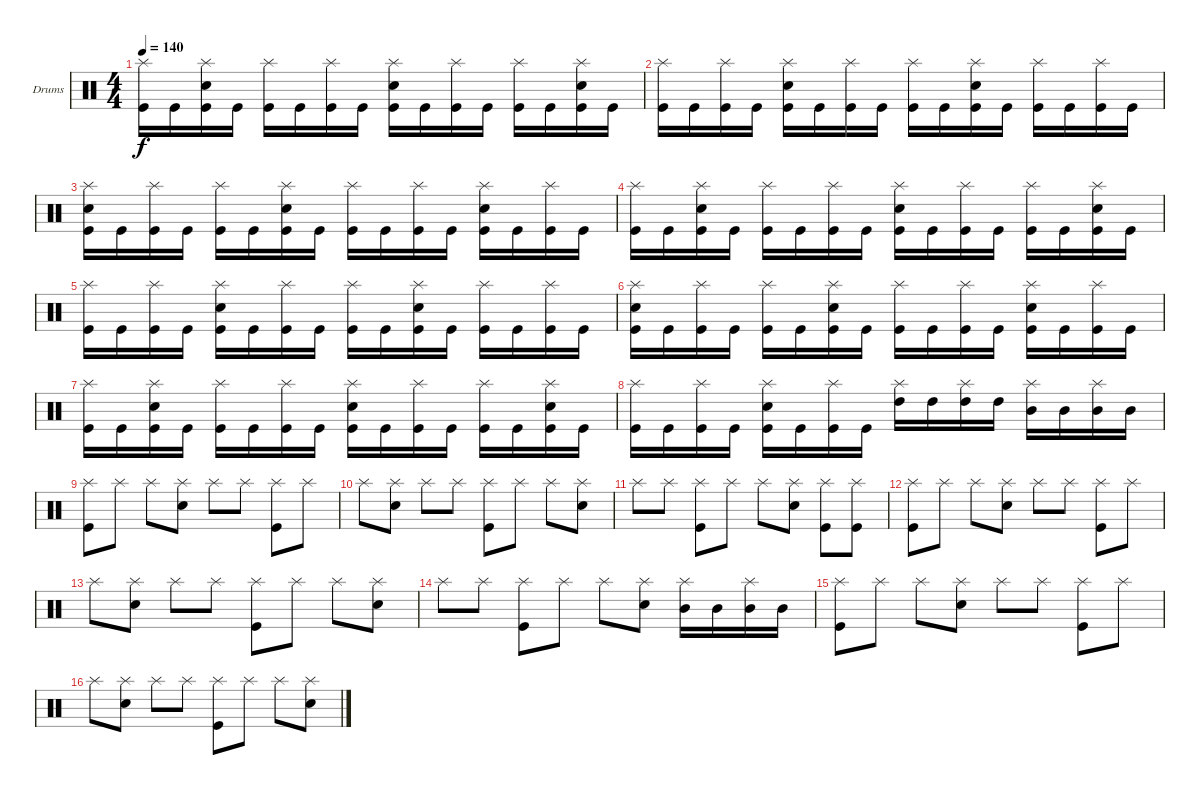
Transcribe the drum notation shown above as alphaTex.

\bracketExtendMode groupsimilarinstruments
\firstSystemTrackNameOrientation horizontal
\otherSystemsTrackNameOrientation horizontal
\track ("Drumkit" "Drums") {instrument percussion}
\staff {score}
\articulation defaults
\ts (4 4)
\tempo 140
\clef neutral
\ks c
("Kick (hit)" "Splash (hit)").16{dy f} "Kick (hit)".16 ("Kick (hit)" "Snare (hit) 2" "Splash (hit)").16 "Kick (hit)".16 ("Kick (hit)" "Splash (hit)").16 "Kick (hit)".16 ("Kick (hit)" "Splash (hit)").16 "Kick (hit)".16 ("Kick (hit)" "Snare (hit) 2" "Splash (hit)").16 "Kick (hit)".16 ("Kick (hit)" "Splash (hit)").16 "Kick (hit)".16 ("Kick (hit)" "Splash (hit)").16 "Kick (hit)".16 ("Kick (hit)" "Snare (hit) 2" "Splash (hit)").16 "Kick (hit)".16 |
("Kick (hit)" "Splash (hit)").16 "Kick (hit)".16 ("Kick (hit)" "Splash (hit)").16 "Kick (hit)".16 ("Kick (hit)" "Snare (hit) 2" "Splash (hit)").16 "Kick (hit)".16 ("Kick (hit)" "Splash (hit)").16 "Kick (hit)".16 ("Kick (hit)" "Splash (hit)").16 "Kick (hit)".16 ("Kick (hit)" "Snare (hit) 2" "Splash (hit)").16 "Kick (hit)".16 ("Kick (hit)" "Splash (hit)").16 "Kick (hit)".16 ("Kick (hit)" "Splash (hit)").16 "Kick (hit)".16 |
("Kick (hit)" "Snare (hit) 2" "Splash (hit)").16 "Kick (hit)".16 ("Kick (hit)" "Splash (hit)").16 "Kick (hit)".16 ("Kick (hit)" "Splash (hit)").16 "Kick (hit)".16 ("Kick (hit)" "Snare (hit) 2" "Splash (hit)").16 "Kick (hit)".16 ("Kick (hit)" "Splash (hit)").16 "Kick (hit)".16 ("Kick (hit)" "Splash (hit)").16 "Kick (hit)".16 ("Kick (hit)" "Snare (hit) 2" "Splash (hit)").16 "Kick (hit)".16 ("Kick (hit)" "Splash (hit)").16 "Kick (hit)".16 |
("Kick (hit)" "Splash (hit)").16 "Kick (hit)".16 ("Kick (hit)" "Snare (hit) 2" "Splash (hit)").16 "Kick (hit)".16 ("Kick (hit)" "Splash (hit)").16 "Kick (hit)".16 ("Kick (hit)" "Splash (hit)").16 "Kick (hit)".16 ("Kick (hit)" "Snare (hit) 2" "Splash (hit)").16 "Kick (hit)".16 ("Kick (hit)" "Splash (hit)").16 "Kick (hit)".16 ("Kick (hit)" "Splash (hit)").16 "Kick (hit)".16 ("Kick (hit)" "Snare (hit) 2" "Splash (hit)").16 "Kick (hit)".16 |
("Kick (hit)" "Splash (hit)").16 "Kick (hit)".16 ("Kick (hit)" "Splash (hit)").16 "Kick (hit)".16 ("Kick (hit)" "Snare (hit) 2" "Splash (hit)").16 "Kick (hit)".16 ("Kick (hit)" "Splash (hit)").16 "Kick (hit)".16 ("Kick (hit)" "Splash (hit)").16 "Kick (hit)".16 ("Kick (hit)" "Snare (hit) 2" "Splash (hit)").16 "Kick (hit)".16 ("Kick (hit)" "Splash (hit)").16 "Kick (hit)".16 ("Kick (hit)" "Splash (hit)").16 "Kick (hit)".16 |
("Kick (hit)" "Snare (hit) 2" "Splash (hit)").16 "Kick (hit)".16 ("Kick (hit)" "Splash (hit)").16 "Kick (hit)".16 ("Kick (hit)" "Splash (hit)").16 "Kick (hit)".16 ("Kick (hit)" "Snare (hit) 2" "Splash (hit)").16 "Kick (hit)".16 ("Kick (hit)" "Splash (hit)").16 "Kick (hit)".16 ("Kick (hit)" "Splash (hit)").16 "Kick (hit)".16 ("Kick (hit)" "Snare (hit) 2" "Splash (hit)").16 "Kick (hit)".16 ("Kick (hit)" "Splash (hit)").16 "Kick (hit)".16 |
("Kick (hit)" "Splash (hit)").16 "Kick (hit)".16 ("Kick (hit)" "Snare (hit) 2" "Splash (hit)").16 "Kick (hit)".16 ("Kick (hit)" "Splash (hit)").16 "Kick (hit)".16 ("Kick (hit)" "Splash (hit)").16 "Kick (hit)".16 ("Kick (hit)" "Snare (hit) 2" "Splash (hit)").16 "Kick (hit)".16 ("Kick (hit)" "Splash (hit)").16 "Kick (hit)".16 ("Kick (hit)" "Splash (hit)").16 "Kick (hit)".16 ("Kick (hit)" "Snare (hit) 2" "Splash (hit)").16 "Kick (hit)".16 |
("Kick (hit)" "Splash (hit)").16 "Kick (hit)".16 ("Kick (hit)" "Splash (hit)").16 "Kick (hit)".16 ("Kick (hit)" "Snare (hit) 2" "Splash (hit)").16 "Kick (hit)".16 ("Kick (hit)" "Splash (hit)").16 "Kick (hit)".16 ("High Tom (hit)" "Splash (hit)").16 "High Tom (hit)".16 ("High Tom (hit)" "Splash (hit)").16 "High Tom (hit)".16 ("Mid Tom (hit)" "Splash (hit)").16 "Mid Tom (hit)".16 ("Mid Tom (hit)" "Splash (hit)").16 "Mid Tom (hit)".16 |
("Kick (hit)" "Splash (hit)").8 "Splash (hit)".8 "Splash (hit)".8 ("Snare (hit) 2" "Splash (hit)").8 "Splash (hit)".8 "Splash (hit)".8 ("Kick (hit)" "Splash (hit)").8 "Splash (hit)".8 |
"Splash (hit)".8 ("Snare (hit) 2" "Splash (hit)").8 "Splash (hit)".8 "Splash (hit)".8 ("Kick (hit)" "Splash (hit)").8 "Splash (hit)".8 "Splash (hit)".8 ("Snare (hit) 2" "Splash (hit)").8 |
"Splash (hit)".8 "Splash (hit)".8 ("Kick (hit)" "Splash (hit)").8 "Splash (hit)".8 "Splash (hit)".8 ("Snare (hit) 2" "Splash (hit)").8 ("Kick (hit)" "Splash (hit)").8 ("Kick (hit)" "Splash (hit)").8 |
("Kick (hit)" "Splash (hit)").8 "Splash (hit)".8 "Splash (hit)".8 ("Snare (hit) 2" "Splash (hit)").8 "Splash (hit)".8 "Splash (hit)".8 ("Kick (hit)" "Splash (hit)").8 "Splash (hit)".8 |
"Splash (hit)".8 ("Snare (hit) 2" "Splash (hit)").8 "Splash (hit)".8 "Splash (hit)".8 ("Kick (hit)" "Splash (hit)").8 "Splash (hit)".8 "Splash (hit)".8 ("Snare (hit) 2" "Splash (hit)").8 |
"Splash (hit)".8 "Splash (hit)".8 ("Kick (hit)" "Splash (hit)").8 "Splash (hit)".8 "Splash (hit)".8 ("Snare (hit) 2" "Splash (hit)").8 ("Mid Tom (hit)" "Splash (hit)").16 "Mid Tom (hit)".16 ("Mid Tom (hit)" "Splash (hit)").16 "Mid Tom (hit)".16 |
("Kick (hit)" "Splash (hit)").8 "Splash (hit)".8 "Splash (hit)".8 ("Snare (hit) 2" "Splash (hit)").8 "Splash (hit)".8 "Splash (hit)".8 ("Kick (hit)" "Splash (hit)").8 "Splash (hit)".8 |
"Splash (hit)".8 ("Snare (hit) 2" "Splash (hit)").8 "Splash (hit)".8 "Splash (hit)".8 ("Kick (hit)" "Splash (hit)").8 "Splash (hit)".8 "Splash (hit)".8 ("Snare (hit) 2" "Splash (hit)").8
